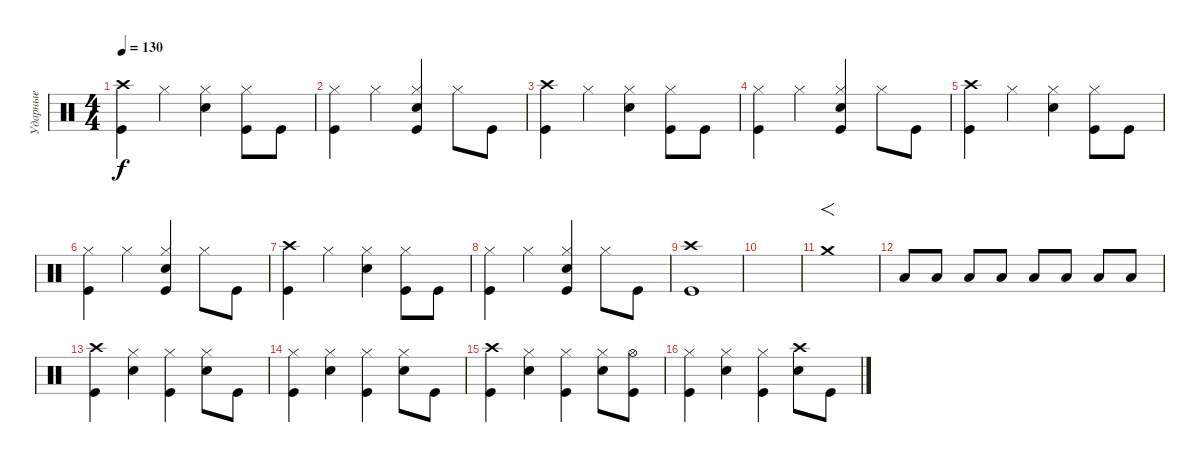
\track ("Ударные" "Ударные") {instrument percussion}
\staff {score}
\articulation defaults
\ts (4 4)
\tempo 130
\clef neutral
\ks c
("Crash high (hit)" "Kick (hit)").4{dy f} "Hi-Hat (closed)".4 ("Hi-Hat (closed)" "Electric Snare (hit)").4 ("Hi-Hat (closed)" "Kick (hit)").8 "Kick (hit)".8 |
("Hi-Hat (closed)" "Kick (hit)").4 "Hi-Hat (closed)".4 ("Hi-Hat (closed)" "Electric Snare (hit)" "Kick (hit)").4 "Hi-Hat (closed)".8 "Kick (hit)".8 |
("Crash high (hit)" "Kick (hit)").4 "Hi-Hat (closed)".4 ("Hi-Hat (closed)" "Electric Snare (hit)").4 ("Hi-Hat (closed)" "Kick (hit)").8 "Kick (hit)".8 |
("Hi-Hat (closed)" "Kick (hit)").4 "Hi-Hat (closed)".4 ("Hi-Hat (closed)" "Electric Snare (hit)" "Kick (hit)").4 "Hi-Hat (closed)".8 "Kick (hit)".8 |
("Crash high (hit)" "Kick (hit)").4 "Hi-Hat (closed)".4 ("Hi-Hat (closed)" "Electric Snare (hit)").4 ("Hi-Hat (closed)" "Kick (hit)").8 "Kick (hit)".8 |
("Hi-Hat (closed)" "Kick (hit)").4 "Hi-Hat (closed)".4 ("Hi-Hat (closed)" "Electric Snare (hit)" "Kick (hit)").4 "Hi-Hat (closed)".8 "Kick (hit)".8 |
("Crash high (hit)" "Kick (hit)").4 "Hi-Hat (closed)".4 ("Hi-Hat (closed)" "Electric Snare (hit)").4 ("Hi-Hat (closed)" "Kick (hit)").8 "Kick (hit)".8 |
("Hi-Hat (closed)" "Kick (hit)").4 "Hi-Hat (closed)".4 ("Hi-Hat (closed)" "Electric Snare (hit)" "Kick (hit)").4 "Hi-Hat (closed)".8 "Kick (hit)".8 |
("Crash high (hit)" "Kick (hit)").1 |
|
"Crash medium (hit)".1{f} |
"Low Tom (hit)".8 "Low Tom (hit)".8 "Low Tom (hit)".8 "Low Tom (hit)".8 "Low Tom (hit)".8 "Low Tom (hit)".8 "Low Tom (hit)".8 "Low Tom (hit)".8 |
("Crash high (hit)" "Kick (hit)").4 ("Hi-Hat (closed)" "Electric Snare (hit)").4 ("Hi-Hat (closed)" "Kick (hit)").4 ("Hi-Hat (closed)" "Electric Snare (hit)").8 "Kick (hit)".8 |
("Hi-Hat (closed)" "Kick (hit)").4 ("Hi-Hat (closed)" "Electric Snare (hit)").4 ("Hi-Hat (closed)" "Kick (hit)").4 ("Hi-Hat (closed)" "Electric Snare (hit)").8 "Kick (hit)".8 |
("Crash high (hit)" "Kick (hit)").4 ("Hi-Hat (closed)" "Electric Snare (hit)").4 ("Hi-Hat (closed)" "Kick (hit)").4 ("Hi-Hat (closed)" "Electric Snare (hit)").8 ("Hi-Hat (open)" "Kick (hit)").8 |
("Hi-Hat (closed)" "Kick (hit)").4 ("Hi-Hat (closed)" "Electric Snare (hit)").4 ("Hi-Hat (closed)" "Kick (hit)").4 ("Crash high (hit)" "Electric Snare (hit)").8 "Kick (hit)".8
